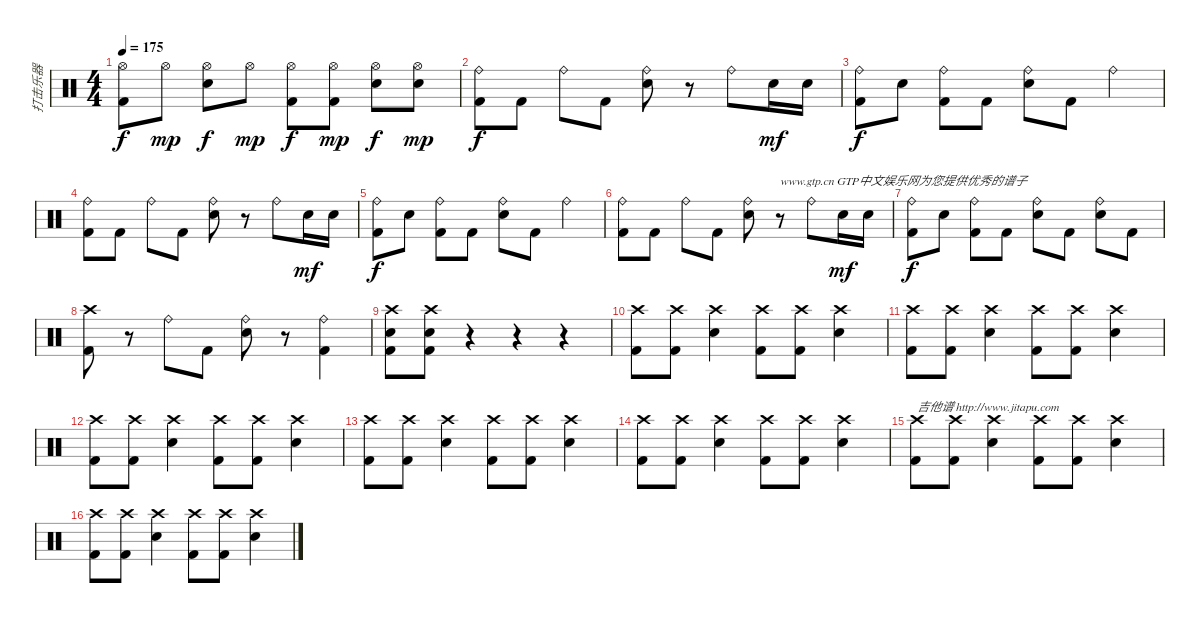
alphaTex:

\track ("打击乐器" "打击乐器") {instrument percussion}
\staff {score}
\articulation defaults
\ts (4 4)
\tempo 175
\clef neutral
\ks c
("Hi-Hat (open)" "Kick (hit) 2").8{dy f} "Hi-Hat (open)".8{dy mp} ("Hi-Hat (open)" "Electric Snare (hit)").8{dy f} "Hi-Hat (open)".8{dy mp} ("Hi-Hat (open)" "Kick (hit) 2").8{dy f} ("Hi-Hat (open)" "Kick (hit) 2").8{dy mp} ("Hi-Hat (open)" "Electric Snare (hit)").8{dy f} ("Hi-Hat (open)" "Electric Snare (hit)").8{dy mp} |
("Ride (bell)" "Kick (hit) 2").8{dy f} "Kick (hit) 2".8 "Ride (bell)".8 "Kick (hit) 2".8 ("Ride (bell)" "Electric Snare (hit)").8 r.8 "Ride (bell)".8 "Electric Snare (hit)".16{dy mf} "Electric Snare (hit)".16 |
("Ride (bell)" "Kick (hit) 2").8{dy f} "Electric Snare (hit)".8 ("Ride (bell)" "Kick (hit) 2").8 "Kick (hit) 2".8 ("Ride (bell)" "Electric Snare (hit)").8 "Kick (hit) 2".8 "Ride (bell)".4 |
("Ride (bell)" "Kick (hit) 2").8 "Kick (hit) 2".8 "Ride (bell)".8 "Kick (hit) 2".8 ("Ride (bell)" "Electric Snare (hit)").8 r.8 "Ride (bell)".8 "Electric Snare (hit)".16{dy mf} "Electric Snare (hit)".16 |
("Ride (bell)" "Kick (hit) 2").8{dy f} "Electric Snare (hit)".8 ("Ride (bell)" "Kick (hit) 2").8 "Kick (hit) 2".8 ("Ride (bell)" "Electric Snare (hit)").8 "Kick (hit) 2".8 "Ride (bell)".4 |
("Ride (bell)" "Kick (hit) 2").8 "Kick (hit) 2".8 "Ride (bell)".8 "Kick (hit) 2".8 ("Ride (bell)" "Electric Snare (hit)").8 r.8{txt "www.gtp.cn GTP中文娱乐网为您提供优秀的谱子"} "Ride (bell)".8 "Electric Snare (hit)".16{dy mf} "Electric Snare (hit)".16 |
("Ride (bell)" "Kick (hit) 2").8{dy f} "Electric Snare (hit)".8 ("Ride (bell)" "Kick (hit) 2").8 "Kick (hit) 2".8 ("Ride (bell)" "Electric Snare (hit)").8 "Kick (hit) 2".8 ("Ride (bell)" "Electric Snare (hit)").8 "Kick (hit) 2".8 |
("Crash high (hit)" "Kick (hit) 2").8 r.8 "Ride (bell)".8 "Kick (hit) 2".8 ("Ride (bell)" "Electric Snare (hit)").8 r.8 ("Ride (bell)" "Kick (hit) 2").4 |
("Crash high (hit)" "Electric Snare (hit)" "Kick (hit) 2").8 ("Crash high (hit)" "Electric Snare (hit)" "Kick (hit) 2").8 r.4 r.4 r.4 |
("Crash high (hit)" "Kick (hit) 2").8 ("Crash high (hit)" "Kick (hit) 2").8 ("Crash high (hit)" "Electric Snare (hit)").4 ("Crash high (hit)" "Kick (hit) 2").8 ("Crash high (hit)" "Kick (hit) 2").8 ("Crash high (hit)" "Electric Snare (hit)").4 |
("Crash high (hit)" "Kick (hit) 2").8 ("Crash high (hit)" "Kick (hit) 2").8 ("Crash high (hit)" "Electric Snare (hit)").4 ("Crash high (hit)" "Kick (hit) 2").8 ("Crash high (hit)" "Kick (hit) 2").8 ("Crash high (hit)" "Electric Snare (hit)").4 |
("Crash high (hit)" "Kick (hit) 2").8 ("Crash high (hit)" "Kick (hit) 2").8 ("Crash high (hit)" "Electric Snare (hit)").4 ("Crash high (hit)" "Kick (hit) 2").8 ("Crash high (hit)" "Kick (hit) 2").8 ("Crash high (hit)" "Electric Snare (hit)").4 |
("Crash high (hit)" "Kick (hit) 2").8 ("Crash high (hit)" "Kick (hit) 2").8 ("Crash high (hit)" "Electric Snare (hit)").4 ("Crash high (hit)" "Kick (hit) 2").8 ("Crash high (hit)" "Kick (hit) 2").8 ("Crash high (hit)" "Electric Snare (hit)").4 |
("Crash high (hit)" "Kick (hit) 2").8 ("Crash high (hit)" "Kick (hit) 2").8 ("Crash high (hit)" "Electric Snare (hit)").4 ("Crash high (hit)" "Kick (hit) 2").8 ("Crash high (hit)" "Kick (hit) 2").8 ("Crash high (hit)" "Electric Snare (hit)").4 |
("Crash high (hit)" "Kick (hit) 2").8{txt "吉他谱 http://www.jitapu.com"} ("Crash high (hit)" "Kick (hit) 2").8 ("Crash high (hit)" "Electric Snare (hit)").4 ("Crash high (hit)" "Kick (hit) 2").8 ("Crash high (hit)" "Kick (hit) 2").8 ("Crash high (hit)" "Electric Snare (hit)").4 |
("Crash high (hit)" "Kick (hit) 2").8 ("Crash high (hit)" "Kick (hit) 2").8 ("Crash high (hit)" "Electric Snare (hit)").4 ("Crash high (hit)" "Kick (hit) 2").8 ("Crash high (hit)" "Kick (hit) 2").8 ("Crash high (hit)" "Electric Snare (hit)").4
